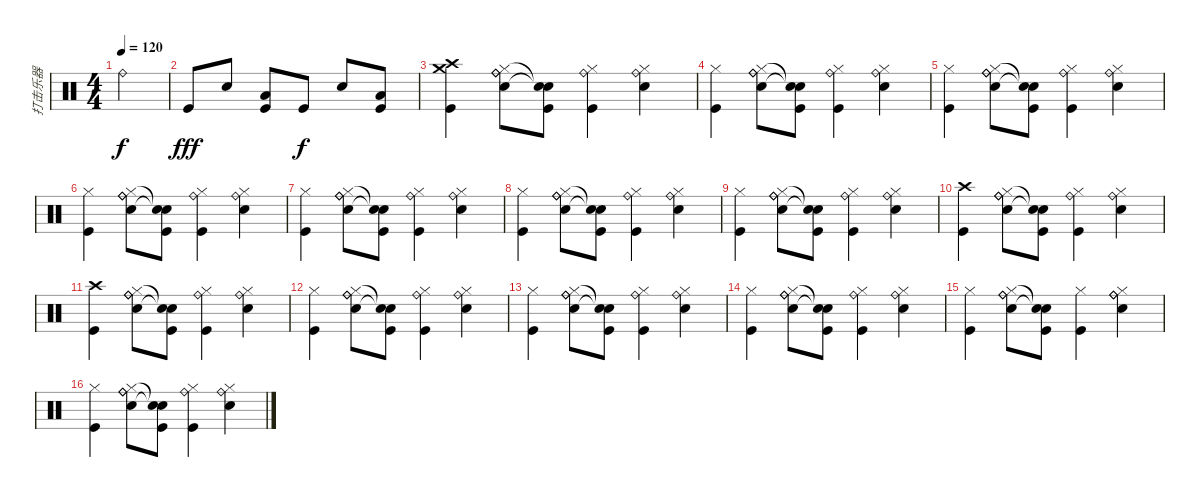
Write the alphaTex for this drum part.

\track ("打击乐器" "打击乐器") {instrument percussion}
\staff {score}
\articulation defaults
\ts (4 4)
\tempo 120
\clef neutral
\ks c "Ride (bell)".4{dy f}
|
"Kick (hit)".8{dy fff} "Snare (hit) 2".8 ("Low Tom (hit)" "Kick (hit)").8 "Kick (hit)".8{dy f} "Snare (hit) 2".8 ("Low Tom (hit)" "Kick (hit)").8 |
("Crash medium (hit)" "Crash high (hit)" "Kick (hit)").4 ("Hi-Hat (closed)" "Snare (hit) 2" "Ride (bell)" "Ride (bell)").8 ("Snare (hit)"{t} "Snare (hit)"{t} "Kick (hit)").8 ("Hi-Hat (closed)" "Ride (bell)" "Kick (hit)").4 ("Hi-Hat (closed)" "Snare (hit) 2" "Ride (bell)").4 |
("Hi-Hat (closed)" "Kick (hit)").4 ("Hi-Hat (closed)" "Snare (hit) 2" "Ride (bell)" "Ride (bell)").8 ("Snare (hit)"{t} "Snare (hit)"{t} "Kick (hit)").8 ("Hi-Hat (closed)" "Ride (bell)" "Kick (hit)").4 ("Hi-Hat (closed)" "Snare (hit) 2" "Ride (bell)").4 |
("Hi-Hat (closed)" "Kick (hit)").4 ("Hi-Hat (closed)" "Snare (hit) 2" "Ride (bell)" "Ride (bell)").8 ("Snare (hit)"{t} "Snare (hit)"{t} "Kick (hit)").8 ("Hi-Hat (closed)" "Ride (bell)" "Kick (hit)").4 ("Hi-Hat (closed)" "Snare (hit) 2" "Ride (bell)").4 |
("Hi-Hat (closed)" "Kick (hit)").4 ("Hi-Hat (closed)" "Snare (hit) 2" "Ride (bell)" "Ride (bell)").8 ("Snare (hit)"{t} "Snare (hit)"{t} "Kick (hit)").8 ("Hi-Hat (closed)" "Ride (bell)" "Kick (hit)").4 ("Hi-Hat (closed)" "Snare (hit) 2" "Ride (bell)").4 |
("Hi-Hat (closed)" "Kick (hit)").4 ("Hi-Hat (closed)" "Snare (hit) 2" "Ride (bell)" "Ride (bell)").8 ("Snare (hit)"{t} "Snare (hit)"{t} "Kick (hit)").8 ("Hi-Hat (closed)" "Ride (bell)" "Kick (hit)").4 ("Hi-Hat (closed)" "Snare (hit) 2" "Ride (bell)").4 |
("Hi-Hat (closed)" "Kick (hit)").4 ("Hi-Hat (closed)" "Snare (hit) 2" "Ride (bell)" "Ride (bell)").8 ("Snare (hit)"{t} "Snare (hit)"{t} "Kick (hit)").8 ("Hi-Hat (closed)" "Ride (bell)" "Kick (hit)").4 ("Hi-Hat (closed)" "Snare (hit) 2" "Ride (bell)").4 |
("Hi-Hat (closed)" "Kick (hit)").4 ("Hi-Hat (closed)" "Snare (hit) 2" "Ride (bell)" "Ride (bell)").8 ("Snare (hit)"{t} "Snare (hit)"{t} "Kick (hit)").8 ("Hi-Hat (closed)" "Ride (bell)" "Kick (hit)").4 ("Hi-Hat (closed)" "Snare (hit) 2" "Ride (bell)").4 |
("Crash high (hit)" "Kick (hit)").4 ("Hi-Hat (closed)" "Snare (hit) 2" "Ride (bell)" "Ride (bell)").8 ("Snare (hit)"{t} "Snare (hit)"{t} "Kick (hit)").8 ("Hi-Hat (closed)" "Ride (bell)" "Kick (hit)").4 ("Hi-Hat (closed)" "Snare (hit) 2" "Ride (bell)").4 |
("Crash high (hit)" "Kick (hit)").4 ("Hi-Hat (closed)" "Snare (hit) 2" "Ride (bell)" "Ride (bell)").8 ("Snare (hit)"{t} "Snare (hit)"{t} "Kick (hit)").8 ("Hi-Hat (closed)" "Ride (bell)" "Kick (hit)").4 ("Hi-Hat (closed)" "Snare (hit) 2" "Ride (bell)").4 |
("Hi-Hat (closed)" "Kick (hit)").4 ("Hi-Hat (closed)" "Snare (hit) 2" "Ride (bell)" "Ride (bell)").8 ("Snare (hit)"{t} "Snare (hit)"{t} "Kick (hit)").8 ("Hi-Hat (closed)" "Ride (bell)" "Kick (hit)").4 ("Hi-Hat (closed)" "Snare (hit) 2" "Ride (bell)").4 |
("Hi-Hat (closed)" "Kick (hit)").4 ("Hi-Hat (closed)" "Snare (hit) 2" "Ride (bell)" "Ride (bell)").8 ("Snare (hit)"{t} "Snare (hit)"{t} "Kick (hit)").8 ("Hi-Hat (closed)" "Ride (bell)" "Kick (hit)").4 ("Hi-Hat (closed)" "Snare (hit) 2" "Ride (bell)").4 |
("Hi-Hat (closed)" "Kick (hit)").4 ("Hi-Hat (closed)" "Snare (hit) 2" "Ride (bell)" "Ride (bell)").8 ("Snare (hit)"{t} "Snare (hit)"{t} "Kick (hit)").8 ("Hi-Hat (closed)" "Ride (bell)" "Kick (hit)").4 ("Hi-Hat (closed)" "Snare (hit) 2" "Ride (bell)").4 |
("Hi-Hat (closed)" "Kick (hit)").4 ("Hi-Hat (closed)" "Snare (hit) 2" "Ride (bell)" "Ride (bell)").8 ("Snare (hit)"{t} "Snare (hit)"{t} "Kick (hit)").8 ("Hi-Hat (closed)" "Kick (hit)").4 ("Hi-Hat (closed)" "Snare (hit) 2" "Ride (bell)" "Ride (bell)").4 |
("Hi-Hat (closed)" "Kick (hit)").4 ("Hi-Hat (closed)" "Snare (hit) 2" "Ride (bell)" "Ride (bell)").8 ("Snare (hit)"{t} "Snare (hit)"{t} "Kick (hit)").8 ("Hi-Hat (closed)" "Ride (bell)" "Kick (hit)").4 ("Hi-Hat (closed)" "Snare (hit) 2" "Ride (bell)").4
